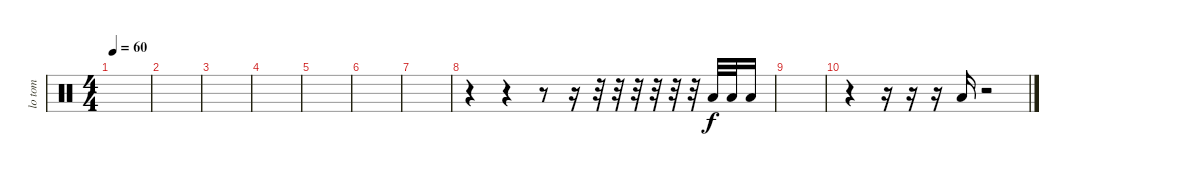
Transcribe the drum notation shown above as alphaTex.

\track ("lo tom" "lo tom") {instrument percussion}
\staff {score}
\articulation defaults
\ts (4 4)
\tempo 60
\clef neutral
\ks c
|
|
|
|
|
|
|
r.4 r.4 r.8 r.16 r.32 r.32 r.32 r.32 r.32 r.32 "Low Tom (hit)".32 "Low Tom (hit)".32 "Low Tom (hit)".16 |
|
r.4 r.16 r.16 r.16 "Low Tom (hit)".16 r.2
